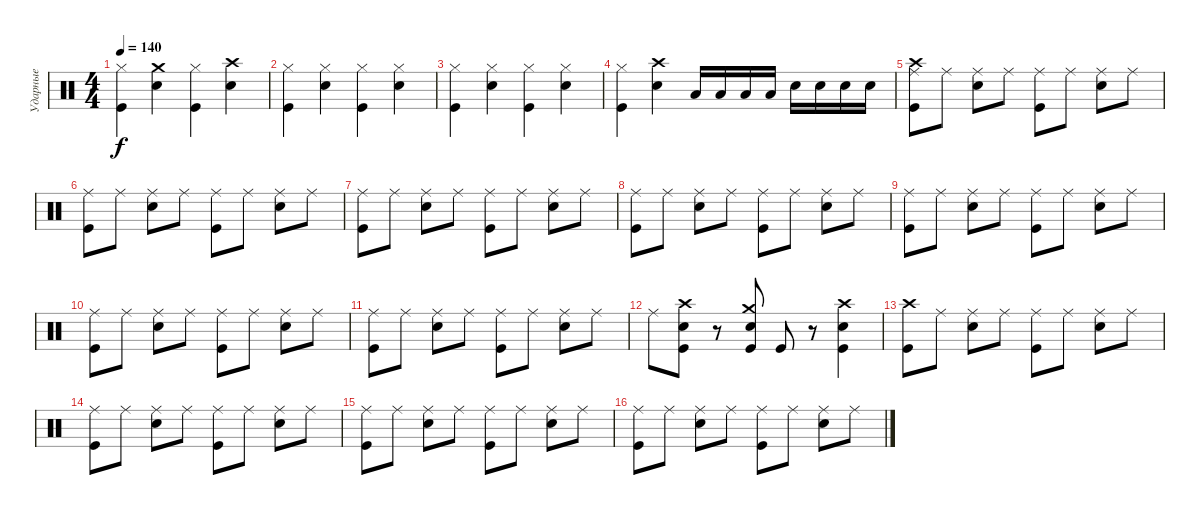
\track ("Ударные" "Ударные") {instrument percussion}
\staff {score}
\articulation defaults
\ts (4 4)
\tempo 140
\clef neutral
\ks c
("Hi-Hat (closed)" "Kick (hit)").4{dy f} ("Crash medium (hit)" "Electric Snare (hit)").4 ("Hi-Hat (closed)" "Kick (hit)").4 ("Crash high (hit)" "Electric Snare (hit)").4 |
("Hi-Hat (closed)" "Kick (hit)").4 ("Hi-Hat (closed)" "Electric Snare (hit)").4 ("Hi-Hat (closed)" "Kick (hit)").4 ("Hi-Hat (closed)" "Electric Snare (hit)").4 |
("Hi-Hat (closed)" "Kick (hit)").4 ("Hi-Hat (closed)" "Electric Snare (hit)").4 ("Hi-Hat (closed)" "Kick (hit)").4 ("Hi-Hat (closed)" "Electric Snare (hit)").4 |
("Hi-Hat (closed)" "Kick (hit)").4 ("Crash high (hit)" "Electric Snare (hit)").4 "Low Tom (hit)".16 "Low Tom (hit)".16 "Low Tom (hit)".16 "Low Tom (hit)".16 "Electric Snare (hit)".16 "Electric Snare (hit)".16 "Electric Snare (hit)".16 "Electric Snare (hit)".16 |
("Ride (middle)" "Crash high (hit)" "Kick (hit)").8 "Ride (middle)".8 ("Ride (middle)" "Electric Snare (hit)").8 "Ride (middle)".8 ("Ride (middle)" "Kick (hit)").8 "Ride (middle)".8 ("Ride (middle)" "Electric Snare (hit)").8 "Ride (middle)".8 |
("Ride (middle)" "Kick (hit)").8 "Ride (middle)".8 ("Ride (middle)" "Electric Snare (hit)").8 "Ride (middle)".8 ("Ride (middle)" "Kick (hit)").8 "Ride (middle)".8 ("Ride (middle)" "Electric Snare (hit)").8 "Ride (middle)".8 |
("Ride (middle)" "Kick (hit)").8 "Ride (middle)".8 ("Ride (middle)" "Electric Snare (hit)").8 "Ride (middle)".8 ("Ride (middle)" "Kick (hit)").8 "Ride (middle)".8 ("Ride (middle)" "Electric Snare (hit)").8 "Ride (middle)".8 |
("Ride (middle)" "Kick (hit)").8 "Ride (middle)".8 ("Ride (middle)" "Electric Snare (hit)").8 "Ride (middle)".8 ("Ride (middle)" "Kick (hit)").8 "Ride (middle)".8 ("Ride (middle)" "Electric Snare (hit)").8 "Ride (middle)".8 |
("Ride (middle)" "Kick (hit)").8 "Ride (middle)".8 ("Ride (middle)" "Electric Snare (hit)").8 "Ride (middle)".8 ("Ride (middle)" "Kick (hit)").8 "Ride (middle)".8 ("Ride (middle)" "Electric Snare (hit)").8 "Ride (middle)".8 |
("Ride (middle)" "Kick (hit)").8 "Ride (middle)".8 ("Ride (middle)" "Electric Snare (hit)").8 "Ride (middle)".8 ("Ride (middle)" "Kick (hit)").8 "Ride (middle)".8 ("Ride (middle)" "Electric Snare (hit)").8 "Ride (middle)".8 |
("Ride (middle)" "Kick (hit)").8 "Ride (middle)".8 ("Ride (middle)" "Electric Snare (hit)").8 "Ride (middle)".8 ("Ride (middle)" "Kick (hit)").8 "Ride (middle)".8 ("Ride (middle)" "Electric Snare (hit)").8 "Ride (middle)".8 |
"Ride (middle)".8 ("Crash high (hit)" "Kick (hit)" "Electric Snare (hit)").8 r.8 ("Crash medium (hit)" "Kick (hit)" "Electric Snare (hit)").8 "Kick (hit)".8 r.8 ("Crash high (hit)" "Kick (hit)" "Electric Snare (hit)").4 |
("Crash high (hit)" "Kick (hit)").8 "Ride (middle)".8 ("Ride (middle)" "Electric Snare (hit)").8 "Ride (middle)".8 ("Ride (middle)" "Kick (hit)").8 "Ride (middle)".8 ("Ride (middle)" "Electric Snare (hit)").8 "Ride (middle)".8 |
("Ride (middle)" "Kick (hit)").8 "Ride (middle)".8 ("Ride (middle)" "Electric Snare (hit)").8 "Ride (middle)".8 ("Ride (middle)" "Kick (hit)").8 "Ride (middle)".8 ("Ride (middle)" "Electric Snare (hit)").8 "Ride (middle)".8 |
("Ride (middle)" "Kick (hit)").8 "Ride (middle)".8 ("Ride (middle)" "Electric Snare (hit)").8 "Ride (middle)".8 ("Ride (middle)" "Kick (hit)").8 "Ride (middle)".8 ("Ride (middle)" "Electric Snare (hit)").8 "Ride (middle)".8 |
("Ride (middle)" "Kick (hit)").8 "Ride (middle)".8 ("Ride (middle)" "Electric Snare (hit)").8 "Ride (middle)".8 ("Ride (middle)" "Kick (hit)").8 "Ride (middle)".8 ("Ride (middle)" "Electric Snare (hit)").8 "Ride (middle)".8
